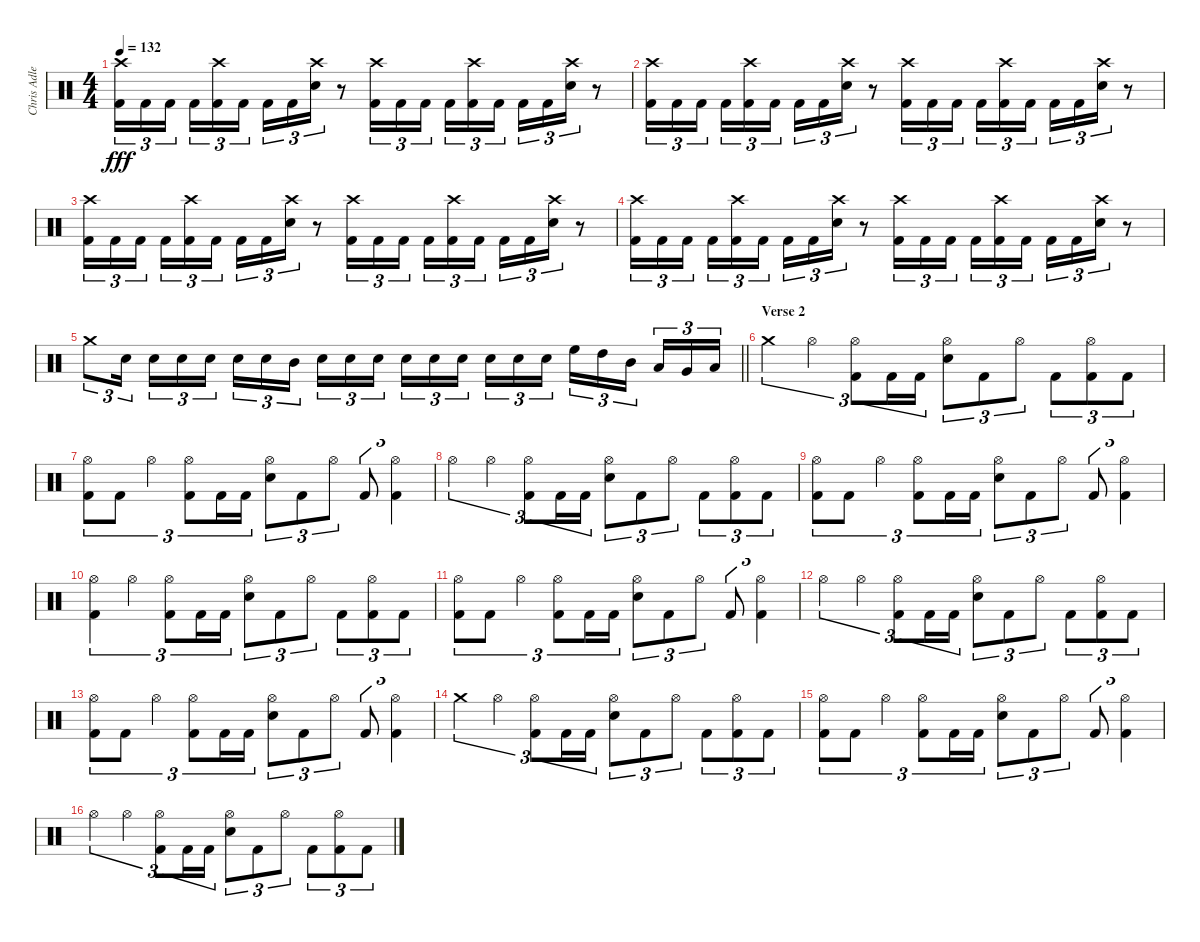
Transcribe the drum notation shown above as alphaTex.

\track ("Chris Adler" "Chris Adle") {instrument percussion}
\staff {score}
\articulation defaults
\ts (4 4)
\tempo 132
\clef neutral
\ks c
("Crash high (hit)" "Kick (hit) 2").16{tu (3 2) dy fff} "Kick (hit) 2".16{tu (3 2)} "Kick (hit) 2".16{tu (3 2) beam splitsecondary} "Kick (hit) 2".16{tu (3 2)} ("Crash high (hit)" "Kick (hit) 2").16{tu (3 2)} "Kick (hit) 2".16{tu (3 2)} "Kick (hit) 2".16{tu (3 2)} "Kick (hit) 2".16{tu (3 2)} ("Crash high (hit)" "Electric Snare (hit)").16{tu (3 2)} r.8 ("Crash high (hit)" "Kick (hit) 2").16{tu (3 2)} "Kick (hit) 2".16{tu (3 2)} "Kick (hit) 2".16{tu (3 2) beam splitsecondary} "Kick (hit) 2".16{tu (3 2)} ("Crash high (hit)" "Kick (hit) 2").16{tu (3 2)} "Kick (hit) 2".16{tu (3 2)} "Kick (hit) 2".16{tu (3 2)} "Kick (hit) 2".16{tu (3 2)} ("Crash high (hit)" "Electric Snare (hit)").16{tu (3 2)} r.8 |
("Crash high (hit)" "Kick (hit) 2").16{tu (3 2)} "Kick (hit) 2".16{tu (3 2)} "Kick (hit) 2".16{tu (3 2) beam splitsecondary} "Kick (hit) 2".16{tu (3 2)} ("Crash high (hit)" "Kick (hit) 2").16{tu (3 2)} "Kick (hit) 2".16{tu (3 2)} "Kick (hit) 2".16{tu (3 2)} "Kick (hit) 2".16{tu (3 2)} ("Crash high (hit)" "Electric Snare (hit)").16{tu (3 2)} r.8 ("Crash high (hit)" "Kick (hit) 2").16{tu (3 2)} "Kick (hit) 2".16{tu (3 2)} "Kick (hit) 2".16{tu (3 2) beam splitsecondary} "Kick (hit) 2".16{tu (3 2)} ("Crash high (hit)" "Kick (hit) 2").16{tu (3 2)} "Kick (hit) 2".16{tu (3 2)} "Kick (hit) 2".16{tu (3 2)} "Kick (hit) 2".16{tu (3 2)} ("Crash high (hit)" "Electric Snare (hit)").16{tu (3 2)} r.8 |
("Crash high (hit)" "Kick (hit) 2").16{tu (3 2)} "Kick (hit) 2".16{tu (3 2)} "Kick (hit) 2".16{tu (3 2) beam splitsecondary} "Kick (hit) 2".16{tu (3 2)} ("Crash high (hit)" "Kick (hit) 2").16{tu (3 2)} "Kick (hit) 2".16{tu (3 2)} "Kick (hit) 2".16{tu (3 2)} "Kick (hit) 2".16{tu (3 2)} ("Crash high (hit)" "Electric Snare (hit)").16{tu (3 2)} r.8 ("Crash high (hit)" "Kick (hit) 2").16{tu (3 2)} "Kick (hit) 2".16{tu (3 2)} "Kick (hit) 2".16{tu (3 2) beam splitsecondary} "Kick (hit) 2".16{tu (3 2)} ("Crash high (hit)" "Kick (hit) 2").16{tu (3 2)} "Kick (hit) 2".16{tu (3 2)} "Kick (hit) 2".16{tu (3 2)} "Kick (hit) 2".16{tu (3 2)} ("Crash high (hit)" "Electric Snare (hit)").16{tu (3 2)} r.8 |
("Crash high (hit)" "Kick (hit) 2").16{tu (3 2)} "Kick (hit) 2".16{tu (3 2)} "Kick (hit) 2".16{tu (3 2) beam splitsecondary} "Kick (hit) 2".16{tu (3 2)} ("Crash high (hit)" "Kick (hit) 2").16{tu (3 2)} "Kick (hit) 2".16{tu (3 2)} "Kick (hit) 2".16{tu (3 2)} "Kick (hit) 2".16{tu (3 2)} ("Crash high (hit)" "Electric Snare (hit)").16{tu (3 2)} r.8 ("Crash high (hit)" "Kick (hit) 2").16{tu (3 2)} "Kick (hit) 2".16{tu (3 2)} "Kick (hit) 2".16{tu (3 2) beam splitsecondary} "Kick (hit) 2".16{tu (3 2)} ("Crash high (hit)" "Kick (hit) 2").16{tu (3 2)} "Kick (hit) 2".16{tu (3 2)} "Kick (hit) 2".16{tu (3 2)} "Kick (hit) 2".16{tu (3 2)} ("Crash high (hit)" "Electric Snare (hit)").16{tu (3 2)} r.8 |
\barLineRight lightlight "Crash medium (hit)".8{tu (3 2)} "Electric Snare (hit)".16{tu (3 2) beam splitsecondary} "Electric Snare (hit)".16{tu (3 2)} "Electric Snare (hit)".16{tu (3 2)} "Electric Snare (hit)".16{tu (3 2)} "Electric Snare (hit)".16{tu (3 2)} "Electric Snare (hit)".16{tu (3 2)} "Mid Tom (hit)".16{tu (3 2) beam splitsecondary} "Electric Snare (hit)".16{tu (3 2)} "Electric Snare (hit)".16{tu (3 2)} "Electric Snare (hit)".16{tu (3 2)} "Electric Snare (hit)".16{tu (3 2)} "Electric Snare (hit)".16{tu (3 2)} "Electric Snare (hit)".16{tu (3 2) beam splitsecondary} "Electric Snare (hit)".16{tu (3 2)} "Electric Snare (hit)".16{tu (3 2)} "Electric Snare (hit)".16{tu (3 2)} "High Floor Tom (hit)".16{tu (3 2)} "High Tom (hit)".16{tu (3 2)} "Mid Tom (hit)".16{tu (3 2) beam splitsecondary} "Low Tom (hit)".16{tu (3 2)} "Very Low Tom (hit)".16{tu (3 2)} "Low Floor Tom (hit)".16{tu (3 2)}
|
\section ("" "Verse 2")
"Crash medium (hit)".4{tu (3 2)} "Hi-Hat (open)".4{tu (3 2)} ("Hi-Hat (open)" "Kick (hit) 2").8{tu (3 2)} "Kick (hit) 2".16{tu (3 2)} "Kick (hit) 2".16{tu (3 2)} ("Hi-Hat (open)" "Electric Snare (hit)").8{tu (3 2)} "Kick (hit) 2".8{tu (3 2)} "Hi-Hat (open)".8{tu (3 2)} "Kick (hit) 2".8{tu (3 2)} ("Hi-Hat (open)" "Kick (hit) 2").8{tu (3 2)} "Kick (hit) 2".8{tu (3 2)} |
("Hi-Hat (open)" "Kick (hit) 2").8{tu (3 2)} "Kick (hit) 2".8{tu (3 2)} "Hi-Hat (open)".4{tu (3 2)} ("Hi-Hat (open)" "Kick (hit) 2").8{tu (3 2)} "Kick (hit) 2".16{tu (3 2)} "Kick (hit) 2".16{tu (3 2)} ("Hi-Hat (open)" "Electric Snare (hit)").8{tu (3 2)} "Kick (hit) 2".8{tu (3 2)} "Hi-Hat (open)".8{tu (3 2)} "Kick (hit) 2".8{tu (3 2)} ("Hi-Hat (open)" "Kick (hit) 2").4{tu (3 2)} |
"Hi-Hat (open)".4{tu (3 2)} "Hi-Hat (open)".4{tu (3 2)} ("Hi-Hat (open)" "Kick (hit) 2").8{tu (3 2)} "Kick (hit) 2".16{tu (3 2)} "Kick (hit) 2".16{tu (3 2)} ("Hi-Hat (open)" "Electric Snare (hit)").8{tu (3 2)} "Kick (hit) 2".8{tu (3 2)} "Hi-Hat (open)".8{tu (3 2)} "Kick (hit) 2".8{tu (3 2)} ("Hi-Hat (open)" "Kick (hit) 2").8{tu (3 2)} "Kick (hit) 2".8{tu (3 2)} |
("Hi-Hat (open)" "Kick (hit) 2").8{tu (3 2)} "Kick (hit) 2".8{tu (3 2)} "Hi-Hat (open)".4{tu (3 2)} ("Hi-Hat (open)" "Kick (hit) 2").8{tu (3 2)} "Kick (hit) 2".16{tu (3 2)} "Kick (hit) 2".16{tu (3 2)} ("Hi-Hat (open)" "Electric Snare (hit)").8{tu (3 2)} "Kick (hit) 2".8{tu (3 2)} "Hi-Hat (open)".8{tu (3 2)} "Kick (hit) 2".8{tu (3 2)} ("Hi-Hat (open)" "Kick (hit) 2").4{tu (3 2)} |
("Hi-Hat (open)" "Kick (hit) 2").4{tu (3 2)} "Hi-Hat (open)".4{tu (3 2)} ("Hi-Hat (open)" "Kick (hit) 2").8{tu (3 2)} "Kick (hit) 2".16{tu (3 2)} "Kick (hit) 2".16{tu (3 2)} ("Hi-Hat (open)" "Electric Snare (hit)").8{tu (3 2)} "Kick (hit) 2".8{tu (3 2)} "Hi-Hat (open)".8{tu (3 2)} "Kick (hit) 2".8{tu (3 2)} ("Hi-Hat (open)" "Kick (hit) 2").8{tu (3 2)} "Kick (hit) 2".8{tu (3 2)} |
("Hi-Hat (open)" "Kick (hit) 2").8{tu (3 2)} "Kick (hit) 2".8{tu (3 2)} "Hi-Hat (open)".4{tu (3 2)} ("Hi-Hat (open)" "Kick (hit) 2").8{tu (3 2)} "Kick (hit) 2".16{tu (3 2)} "Kick (hit) 2".16{tu (3 2)} ("Hi-Hat (open)" "Electric Snare (hit)").8{tu (3 2)} "Kick (hit) 2".8{tu (3 2)} "Hi-Hat (open)".8{tu (3 2)} "Kick (hit) 2".8{tu (3 2)} ("Hi-Hat (open)" "Kick (hit) 2").4{tu (3 2)} |
"Hi-Hat (open)".4{tu (3 2)} "Hi-Hat (open)".4{tu (3 2)} ("Hi-Hat (open)" "Kick (hit) 2").8{tu (3 2)} "Kick (hit) 2".16{tu (3 2)} "Kick (hit) 2".16{tu (3 2)} ("Hi-Hat (open)" "Electric Snare (hit)").8{tu (3 2)} "Kick (hit) 2".8{tu (3 2)} "Hi-Hat (open)".8{tu (3 2)} "Kick (hit) 2".8{tu (3 2)} ("Hi-Hat (open)" "Kick (hit) 2").8{tu (3 2)} "Kick (hit) 2".8{tu (3 2)} |
("Hi-Hat (open)" "Kick (hit) 2").8{tu (3 2)} "Kick (hit) 2".8{tu (3 2)} "Hi-Hat (open)".4{tu (3 2)} ("Hi-Hat (open)" "Kick (hit) 2").8{tu (3 2)} "Kick (hit) 2".16{tu (3 2)} "Kick (hit) 2".16{tu (3 2)} ("Hi-Hat (open)" "Electric Snare (hit)").8{tu (3 2)} "Kick (hit) 2".8{tu (3 2)} "Hi-Hat (open)".8{tu (3 2)} "Kick (hit) 2".8{tu (3 2)} ("Hi-Hat (open)" "Kick (hit) 2").4{tu (3 2)} |
"Crash medium (hit)".4{tu (3 2)} "Hi-Hat (open)".4{tu (3 2)} ("Hi-Hat (open)" "Kick (hit) 2").8{tu (3 2)} "Kick (hit) 2".16{tu (3 2)} "Kick (hit) 2".16{tu (3 2)} ("Hi-Hat (open)" "Electric Snare (hit)").8{tu (3 2)} "Kick (hit) 2".8{tu (3 2)} "Hi-Hat (open)".8{tu (3 2)} "Kick (hit) 2".8{tu (3 2)} ("Hi-Hat (open)" "Kick (hit) 2").8{tu (3 2)} "Kick (hit) 2".8{tu (3 2)} |
("Hi-Hat (open)" "Kick (hit) 2").8{tu (3 2)} "Kick (hit) 2".8{tu (3 2)} "Hi-Hat (open)".4{tu (3 2)} ("Hi-Hat (open)" "Kick (hit) 2").8{tu (3 2)} "Kick (hit) 2".16{tu (3 2)} "Kick (hit) 2".16{tu (3 2)} ("Hi-Hat (open)" "Electric Snare (hit)").8{tu (3 2)} "Kick (hit) 2".8{tu (3 2)} "Hi-Hat (open)".8{tu (3 2)} "Kick (hit) 2".8{tu (3 2)} ("Hi-Hat (open)" "Kick (hit) 2").4{tu (3 2)} |
"Hi-Hat (open)".4{tu (3 2)} "Hi-Hat (open)".4{tu (3 2)} ("Hi-Hat (open)" "Kick (hit) 2").8{tu (3 2)} "Kick (hit) 2".16{tu (3 2)} "Kick (hit) 2".16{tu (3 2)} ("Hi-Hat (open)" "Electric Snare (hit)").8{tu (3 2)} "Kick (hit) 2".8{tu (3 2)} "Hi-Hat (open)".8{tu (3 2)} "Kick (hit) 2".8{tu (3 2)} ("Hi-Hat (open)" "Kick (hit) 2").8{tu (3 2)} "Kick (hit) 2".8{tu (3 2)}
